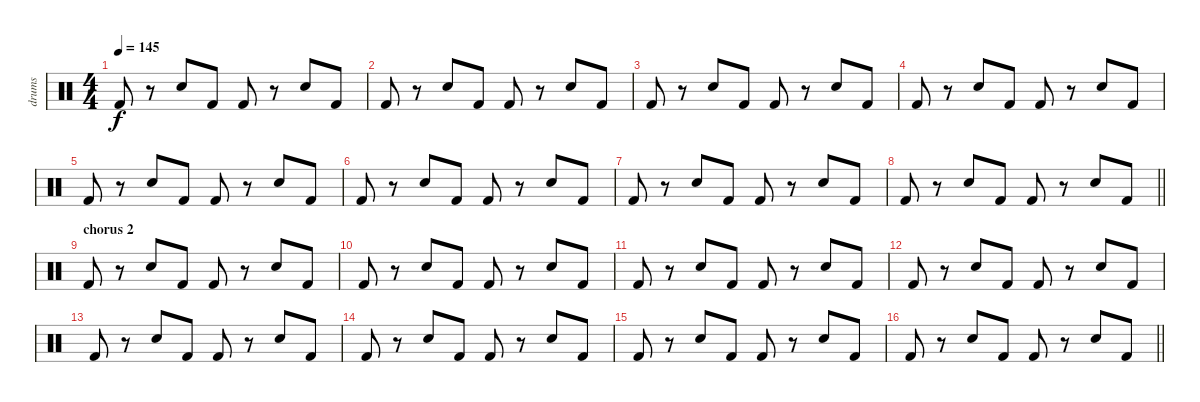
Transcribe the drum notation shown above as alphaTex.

\track ("drums" "drums") {instrument percussion}
\staff {score}
\articulation defaults
\ts (4 4)
\tempo 145
\clef neutral
\ks c "Kick (hit) 2".8{dy f}
r.8 "Snare (hit) 2".8 "Kick (hit) 2".8 "Kick (hit) 2".8 r.8 "Snare (hit) 2".8 "Kick (hit) 2".8 |
"Kick (hit) 2".8 r.8 "Snare (hit) 2".8 "Kick (hit) 2".8 "Kick (hit) 2".8 r.8 "Snare (hit) 2".8 "Kick (hit) 2".8 |
"Kick (hit) 2".8 r.8 "Snare (hit) 2".8 "Kick (hit) 2".8 "Kick (hit) 2".8 r.8 "Snare (hit) 2".8 "Kick (hit) 2".8 |
"Kick (hit) 2".8 r.8 "Snare (hit) 2".8 "Kick (hit) 2".8 "Kick (hit) 2".8 r.8 "Snare (hit) 2".8 "Kick (hit) 2".8 |
"Kick (hit) 2".8 r.8 "Snare (hit) 2".8 "Kick (hit) 2".8 "Kick (hit) 2".8 r.8 "Snare (hit) 2".8 "Kick (hit) 2".8 |
"Kick (hit) 2".8 r.8 "Snare (hit) 2".8 "Kick (hit) 2".8 "Kick (hit) 2".8 r.8 "Snare (hit) 2".8 "Kick (hit) 2".8 |
"Kick (hit) 2".8 r.8 "Snare (hit) 2".8 "Kick (hit) 2".8 "Kick (hit) 2".8 r.8 "Snare (hit) 2".8 "Kick (hit) 2".8 |
\barLineRight lightlight "Kick (hit) 2".8
r.8 "Snare (hit) 2".8 "Kick (hit) 2".8 "Kick (hit) 2".8 r.8 "Snare (hit) 2".8 "Kick (hit) 2".8 |
\section ("" "chorus 2")
"Kick (hit) 2".8 r.8 "Snare (hit) 2".8 "Kick (hit) 2".8 "Kick (hit) 2".8 r.8 "Snare (hit) 2".8 "Kick (hit) 2".8 |
"Kick (hit) 2".8 r.8 "Snare (hit) 2".8 "Kick (hit) 2".8 "Kick (hit) 2".8 r.8 "Snare (hit) 2".8 "Kick (hit) 2".8 |
"Kick (hit) 2".8 r.8 "Snare (hit) 2".8 "Kick (hit) 2".8 "Kick (hit) 2".8 r.8 "Snare (hit) 2".8 "Kick (hit) 2".8 |
"Kick (hit) 2".8 r.8 "Snare (hit) 2".8 "Kick (hit) 2".8 "Kick (hit) 2".8 r.8 "Snare (hit) 2".8 "Kick (hit) 2".8 |
"Kick (hit) 2".8 r.8 "Snare (hit) 2".8 "Kick (hit) 2".8 "Kick (hit) 2".8 r.8 "Snare (hit) 2".8 "Kick (hit) 2".8 |
"Kick (hit) 2".8 r.8 "Snare (hit) 2".8 "Kick (hit) 2".8 "Kick (hit) 2".8 r.8 "Snare (hit) 2".8 "Kick (hit) 2".8 |
"Kick (hit) 2".8 r.8 "Snare (hit) 2".8 "Kick (hit) 2".8 "Kick (hit) 2".8 r.8 "Snare (hit) 2".8 "Kick (hit) 2".8 |
\barLineRight lightlight "Kick (hit) 2".8
r.8 "Snare (hit) 2".8 "Kick (hit) 2".8 "Kick (hit) 2".8 r.8 "Snare (hit) 2".8 "Kick (hit) 2".8
